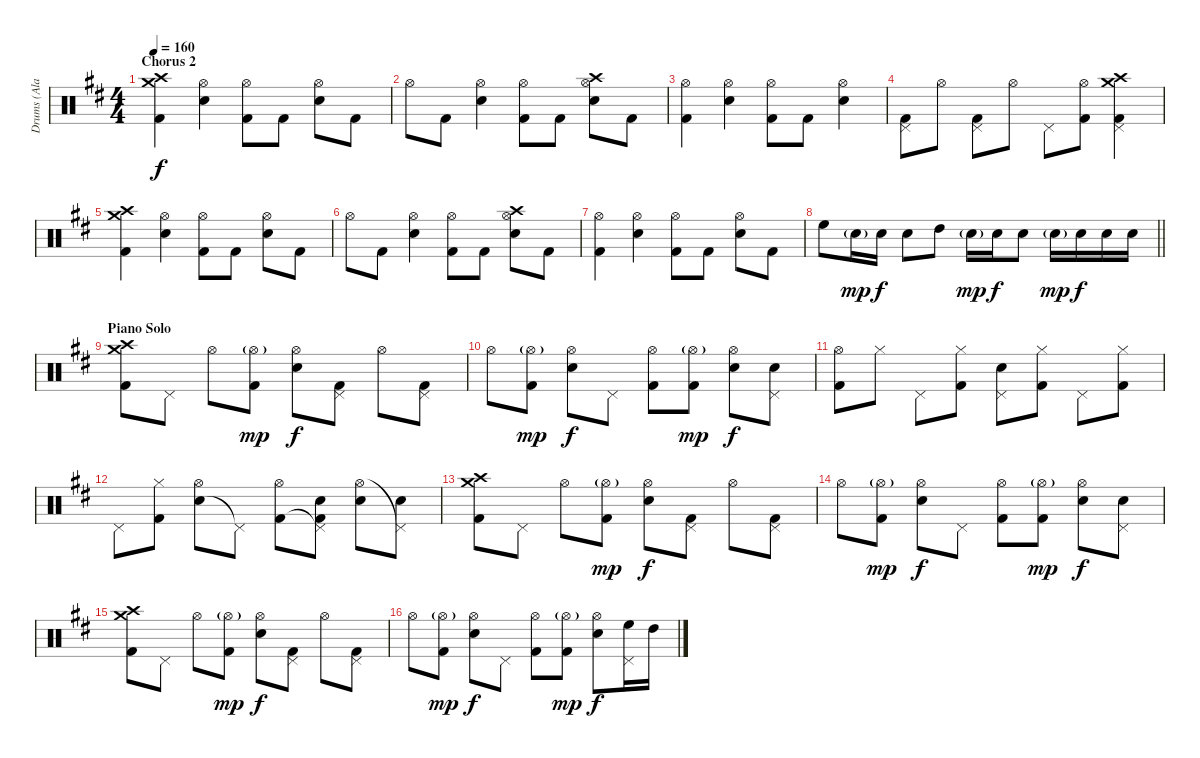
\track ("Drums (Ala Pyle)" "Drums (Ala") {instrument percussion}
\staff {score}
\articulation defaults
\ts (4 4)
\section ("" "Chorus 2")
\tempo 160
\clef neutral
\ks d
("Crash medium (hit)" "Crash high (hit)" "Kick (hit) 2").4{dy f} ("Snare (hit) 2" "Hi-Hat (open)").4 ("Hi-Hat (open)" "Kick (hit) 2").8 "Kick (hit) 2".8 ("Snare (hit) 2" "Hi-Hat (open)").8 "Kick (hit) 2".8 |
"Hi-Hat (open)".8 "Kick (hit) 2".8 ("Snare (hit) 2" "Hi-Hat (open)").4 ("Hi-Hat (open)" "Kick (hit) 2").8 "Kick (hit) 2".8 ("Crash high (hit)" "Snare (hit) 2" "Hi-Hat (open)").8 "Kick (hit) 2".8 |
("Hi-Hat (open)" "Kick (hit) 2").4 ("Snare (hit) 2" "Hi-Hat (open)").4 ("Hi-Hat (open)" "Kick (hit) 2").8 "Kick (hit) 2".8 ("Snare (hit) 2" "Hi-Hat (open)").4 |
("Pedal Hi-Hat (hit)" "Kick (hit) 2").8 "Hi-Hat (open)".8 ("Pedal Hi-Hat (hit)" "Kick (hit) 2").8 "Hi-Hat (open)".8 "Pedal Hi-Hat (hit)".8 ("Hi-Hat (open)" "Kick (hit) 2").8 ("Crash high (hit)" "Crash medium (hit)" "Pedal Hi-Hat (hit)" "Kick (hit) 2").4 |
("Crash medium (hit)" "Crash high (hit)" "Kick (hit) 2").4 ("Snare (hit) 2" "Hi-Hat (open)").4 ("Hi-Hat (open)" "Kick (hit) 2").8 "Kick (hit) 2".8 ("Snare (hit) 2" "Hi-Hat (open)").8 "Kick (hit) 2".8 |
"Hi-Hat (open)".8 "Kick (hit) 2".8 ("Snare (hit) 2" "Hi-Hat (open)").4 ("Hi-Hat (open)" "Kick (hit) 2").8 "Kick (hit) 2".8 ("Crash high (hit)" "Snare (hit) 2" "Hi-Hat (open)").8 "Kick (hit) 2".8 |
("Hi-Hat (open)" "Kick (hit) 2").4 ("Snare (hit) 2" "Hi-Hat (open)").4 ("Hi-Hat (open)" "Kick (hit) 2").8 "Kick (hit) 2".8 ("Snare (hit) 2" "Hi-Hat (open)").8 "Kick (hit) 2".8 |
\barLineRight lightlight "High Floor Tom (hit)".8 "Snare (hit) 2"{g}.16{dy mp} "Snare (hit) 2".16{dy f} "Snare (hit) 2".8 "High Tom (hit)".8 "Snare (hit) 2"{g}.16{dy mp} "Snare (hit) 2".16{dy f} "Snare (hit) 2".8 "Snare (hit) 2"{g}.16{dy mp} "Snare (hit) 2".16{dy f} "Snare (hit) 2".16 "Snare (hit) 2".16
|
\section ("" "Piano Solo")
("Crash medium (hit)" "Crash high (hit)" "Kick (hit) 2").8 "Pedal Hi-Hat (hit)".8 "Hi-Hat (open)".8 ("Hi-Hat (open)"{g} "Kick (hit) 2").8{dy mp} ("Snare (hit) 2" "Hi-Hat (open)").8{dy f} ("Pedal Hi-Hat (hit)" "Kick (hit) 2").8 "Hi-Hat (open)".8 ("Pedal Hi-Hat (hit)" "Kick (hit) 2").8 |
"Hi-Hat (open)".8 ("Hi-Hat (open)"{g} "Kick (hit) 2").8{dy mp} ("Snare (hit) 2" "Hi-Hat (open)").8{dy f} "Pedal Hi-Hat (hit)".8 ("Hi-Hat (open)" "Kick (hit) 2").8 ("Hi-Hat (open)"{g} "Kick (hit) 2").8{dy mp} ("Snare (hit) 2" "Hi-Hat (open)").8{dy f} ("Snare (hit) 2" "Pedal Hi-Hat (hit)").8 |
("Hi-Hat (open)" "Kick (hit) 2").8 "Hi-Hat (closed)".8 "Pedal Hi-Hat (hit)".8 ("Hi-Hat (closed)" "Kick (hit) 2").8 ("Snare (hit) 2" "Pedal Hi-Hat (hit)").8 ("Hi-Hat (closed)" "Kick (hit) 2").8 "Pedal Hi-Hat (hit)".8 ("Hi-Hat (closed)" "Kick (hit) 2").8 |
"Pedal Hi-Hat (hit)".8 ("Hi-Hat (closed)" "Kick (hit) 2").8 ("Snare (hit) 2" "Hi-Hat (open)").8 "Pedal Hi-Hat (hit)"{t}.8 ("Hi-Hat (open)" "Kick (hit) 2").8 ("Snare (hit) 2" "Pedal Hi-Hat (hit)"{t} "Kick (hit) 2").8 ("Snare (hit) 2" "Hi-Hat (open)").8 ("Snare (hit) 2" "Pedal Hi-Hat (hit)"{t}).8 |
("Crash medium (hit)" "Crash high (hit)" "Kick (hit) 2").8 "Pedal Hi-Hat (hit)".8 "Hi-Hat (open)".8 ("Hi-Hat (open)"{g} "Kick (hit) 2").8{dy mp} ("Snare (hit) 2" "Hi-Hat (open)").8{dy f} ("Pedal Hi-Hat (hit)" "Kick (hit) 2").8 "Hi-Hat (open)".8 ("Pedal Hi-Hat (hit)" "Kick (hit) 2").8 |
"Hi-Hat (open)".8 ("Hi-Hat (open)"{g} "Kick (hit) 2").8{dy mp} ("Snare (hit) 2" "Hi-Hat (open)").8{dy f} "Pedal Hi-Hat (hit)".8 ("Hi-Hat (open)" "Kick (hit) 2").8 ("Hi-Hat (open)"{g} "Kick (hit) 2").8{dy mp} ("Snare (hit) 2" "Hi-Hat (open)").8{dy f} ("Snare (hit) 2" "Pedal Hi-Hat (hit)").8 |
("Crash medium (hit)" "Crash high (hit)" "Kick (hit) 2").8 "Pedal Hi-Hat (hit)".8 "Hi-Hat (open)".8 ("Hi-Hat (open)"{g} "Kick (hit) 2").8{dy mp} ("Snare (hit) 2" "Hi-Hat (open)").8{dy f} ("Pedal Hi-Hat (hit)" "Kick (hit) 2").8 "Hi-Hat (open)".8 ("Pedal Hi-Hat (hit)" "Kick (hit) 2").8 |
"Hi-Hat (open)".8 ("Hi-Hat (open)"{g} "Kick (hit) 2").8{dy mp} ("Snare (hit) 2" "Hi-Hat (open)").8{dy f} "Pedal Hi-Hat (hit)".8 ("Hi-Hat (open)" "Kick (hit) 2").8 ("Hi-Hat (open)"{g} "Kick (hit) 2").8{dy mp} ("Snare (hit) 2" "Hi-Hat (open)").8{dy f} ("Pedal Hi-Hat (hit)" "High Floor Tom (hit)").16 "High Tom (hit)".16
